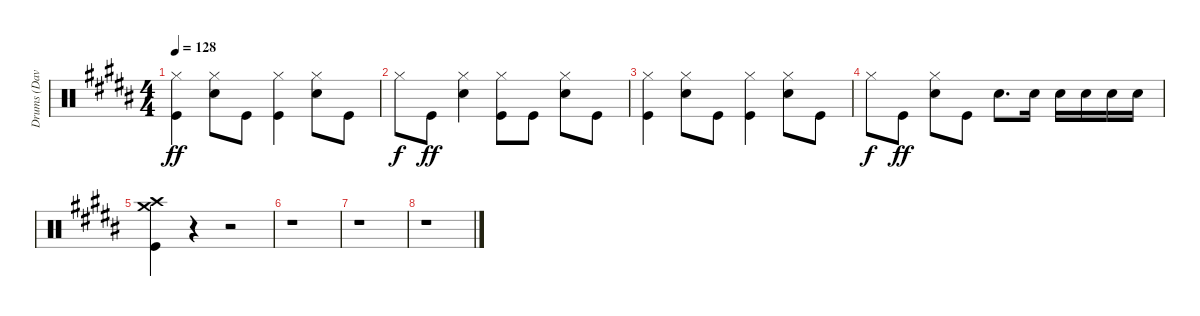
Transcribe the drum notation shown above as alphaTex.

\track ("Drums (Dave)" "Drums (Dav") {instrument percussion}
\staff {score}
\articulation defaults
\ts (4 4)
\tempo 128
\clef neutral
\ks b
("Hi-Hat (closed)" "Kick (hit)").4{dy ff} ("Hi-Hat (closed)" "Electric Snare (hit)").8 "Kick (hit)".8 ("Hi-Hat (closed)" "Kick (hit)").4 ("Hi-Hat (closed)" "Electric Snare (hit)").8 "Kick (hit)".8 |
"Hi-Hat (closed)".8{dy f} "Kick (hit)".8{dy ff} ("Hi-Hat (closed)" "Electric Snare (hit)").4 ("Hi-Hat (closed)" "Kick (hit)").8 "Kick (hit)".8 ("Hi-Hat (closed)" "Electric Snare (hit)").8 "Kick (hit)".8 |
("Hi-Hat (closed)" "Kick (hit)").4 ("Hi-Hat (closed)" "Electric Snare (hit)").8 "Kick (hit)".8 ("Hi-Hat (closed)" "Kick (hit)").4 ("Hi-Hat (closed)" "Electric Snare (hit)").8 "Kick (hit)".8 |
"Hi-Hat (closed)".8{dy f} "Kick (hit)".8{dy ff} ("Hi-Hat (closed)" "Electric Snare (hit)").8 "Kick (hit)".8 "Electric Snare (hit)".8{d} "Electric Snare (hit)".16 "Electric Snare (hit)".16 "Electric Snare (hit)".16 "Electric Snare (hit)".16 "Electric Snare (hit)".16 |
("Crash high (hit)" "Crash medium (hit)" "Kick (hit)").4 r.4 r.2 |
r.1 |
r.1 |
r.1
